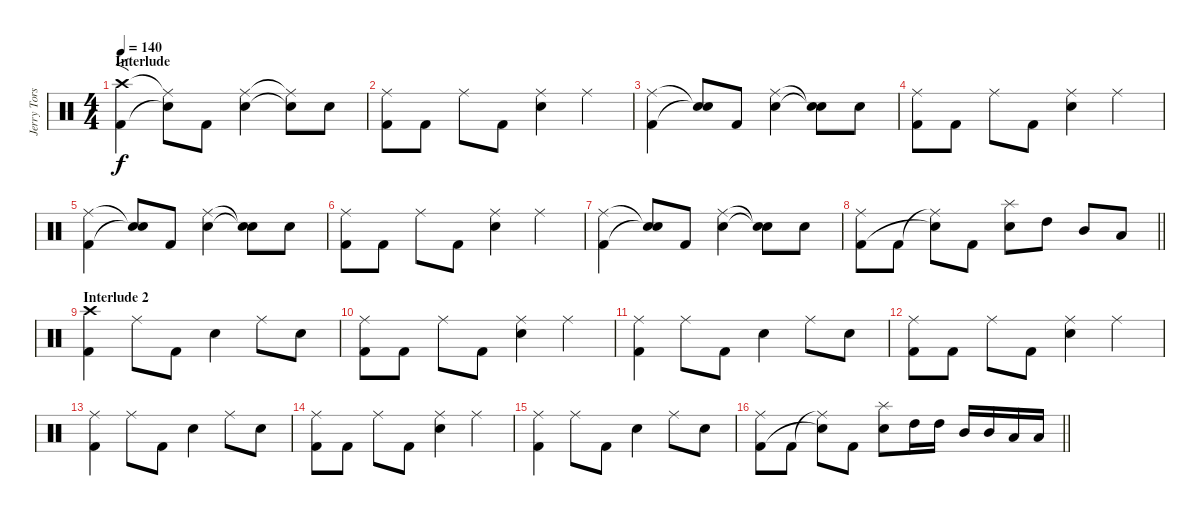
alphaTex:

\track ("Jerry Torstensson" "Jerry Tors") {instrument percussion}
\staff {score}
\articulation defaults
\ts (4 4)
\section ("" "Interlude")
\tempo 140
\clef neutral
\ks c
("Crash high (hit)" "Kick (hit) 2").4{f dy f volume 16} ("Ride (middle)"{t} "Snare (hit)"{t}).8 "Kick (hit) 2".8 ("Ride (middle)" "Snare (hit) 2").4 ("Ride (middle)"{t} "Snare (hit)"{t}).8 "Snare (hit)".8 |
("Ride (middle)" "Kick (hit) 2").8 "Kick (hit) 2".8 "Ride (middle)".8 "Kick (hit) 2".8 ("Ride (middle)" "Snare (hit) 2").4 "Ride (middle)".4 |
("Ride (middle)" "Kick (hit) 2").4 ("Snare (hit)"{t} "Snare (hit)"{t}).8 "Kick (hit) 2".8 ("Ride (middle)" "Snare (hit) 2").4 ("Snare (hit)"{t} "Snare (hit)"{t}).8 "Snare (hit)".8 |
("Ride (middle)" "Kick (hit) 2").8 "Kick (hit) 2".8 "Ride (middle)".8 "Kick (hit) 2".8 ("Ride (middle)" "Snare (hit) 2").4 "Ride (middle)".4 |
("Ride (middle)" "Kick (hit) 2").4 ("Snare (hit)"{t} "Snare (hit)"{t}).8 "Kick (hit) 2".8 ("Ride (middle)" "Snare (hit) 2").4 ("Snare (hit)"{t} "Snare (hit)"{t}).8 "Snare (hit)".8 |
("Ride (middle)" "Kick (hit) 2").8 "Kick (hit) 2".8 "Ride (middle)".8 "Kick (hit) 2".8 ("Ride (middle)" "Snare (hit) 2").4 "Ride (middle)".4 |
("Ride (middle)" "Kick (hit) 2").4 ("Snare (hit)"{t} "Snare (hit)"{t}).8 "Kick (hit) 2".8 ("Ride (middle)" "Snare (hit) 2").4 ("Snare (hit)"{t} "Snare (hit)"{t}).8 "Snare (hit)".8 |
\barLineRight lightlight
("Ride (middle)" "Kick (hit) 2").8 "Kick (hit) 2".8 ("Ride (middle)"{t} "Snare (hit)"{t}).8 "Kick (hit) 2".8 ("Splash (hit)" "Snare (hit) 2").8 "High Tom (hit)".8 "Mid Tom (hit)".8 "Low Tom (hit)".8 |
\section ("" "Interlude 2")
("Crash high (hit)" "Kick (hit) 2").4 "Ride (middle)".8 "Kick (hit) 2".8 "Snare (hit) 2".4 "Ride (middle)".8 "Snare (hit)".8 |
("Ride (middle)" "Kick (hit) 2").8 "Kick (hit) 2".8 "Ride (middle)".8 "Kick (hit) 2".8 ("Ride (middle)" "Snare (hit) 2").4 "Ride (middle)".4 |
("Ride (middle)" "Kick (hit) 2").4 "Ride (middle)".8 "Kick (hit) 2".8 "Snare (hit) 2".4 "Ride (middle)".8 "Snare (hit)".8 |
("Ride (middle)" "Kick (hit) 2").8 "Kick (hit) 2".8 "Ride (middle)".8 "Kick (hit) 2".8 ("Ride (middle)" "Snare (hit) 2").4 "Ride (middle)".4 |
("Ride (middle)" "Kick (hit) 2").4 "Ride (middle)".8 "Kick (hit) 2".8 "Snare (hit) 2".4 "Ride (middle)".8 "Snare (hit)".8 |
("Ride (middle)" "Kick (hit) 2").8 "Kick (hit) 2".8 "Ride (middle)".8 "Kick (hit) 2".8 ("Ride (middle)" "Snare (hit) 2").4 "Ride (middle)".4 |
("Ride (middle)" "Kick (hit) 2").4 "Ride (middle)".8 "Kick (hit) 2".8 "Snare (hit) 2".4 "Ride (middle)".8 "Snare (hit)".8 |
\barLineRight lightlight
("Ride (middle)" "Kick (hit) 2").8 "Kick (hit) 2".8 ("Ride (middle)"{t} "Snare (hit)"{t}).8 "Kick (hit) 2".8 ("Splash (hit)" "Snare (hit) 2").8 "High Tom (hit)".16 "High Tom (hit)".16 "Mid Tom (hit)".16 "Mid Tom (hit)".16 "Low Tom (hit)".16 "Low Tom (hit)".16
